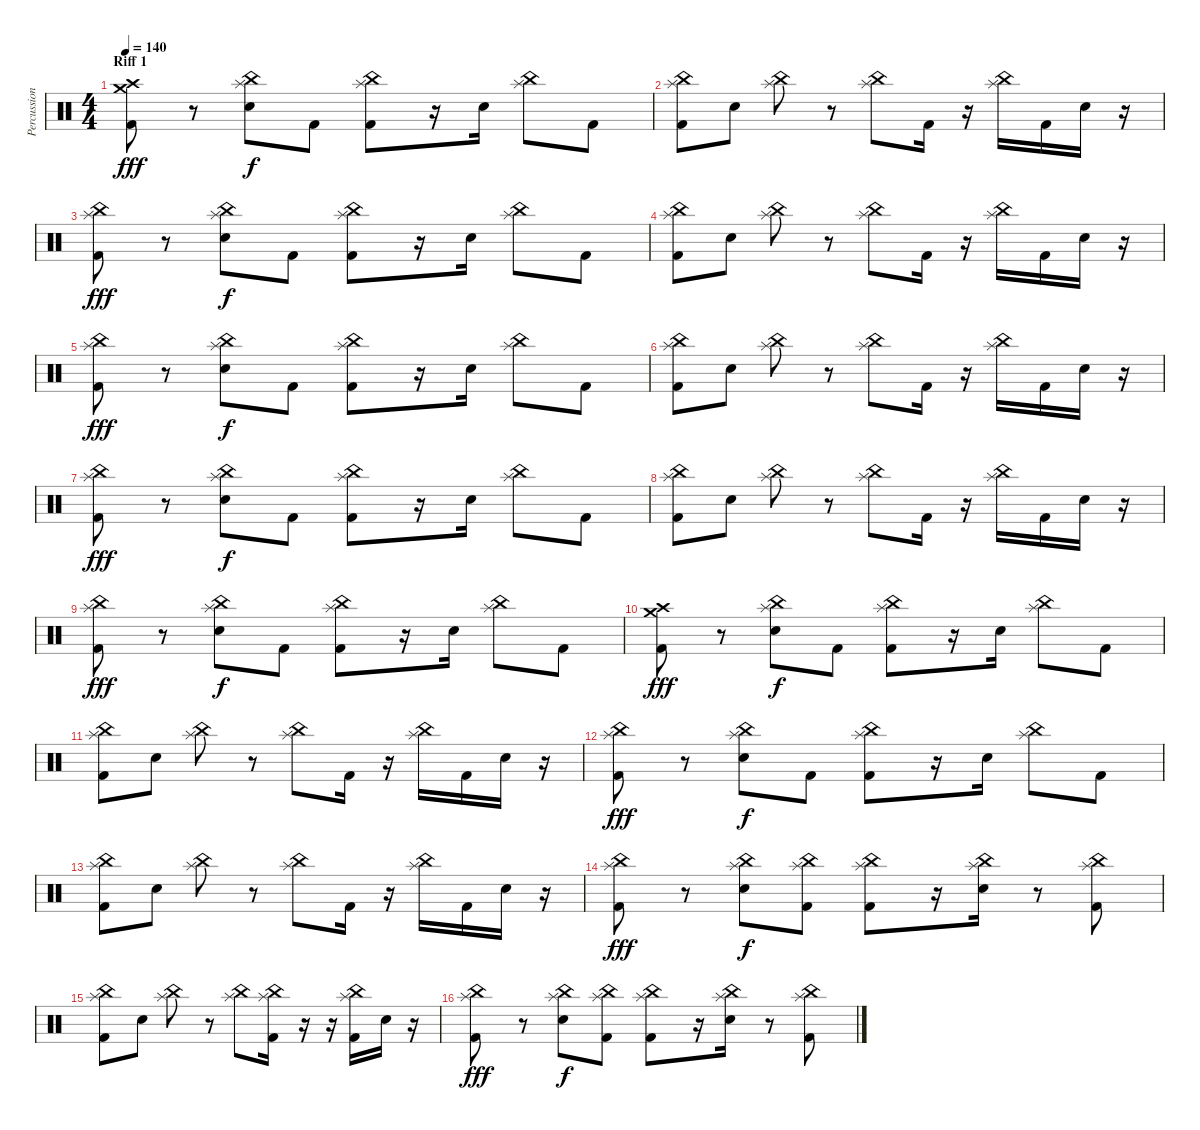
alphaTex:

\track ("Percussion" "Percussion") {instrument percussion}
\staff {score}
\articulation defaults
\ts (4 4)
\section ("" "Riff 1")
\tempo 140
\clef neutral
\ks c
("Crash medium (hit)" "Crash high (hit)" "Kick (hit) 2").8{dy fff} r.8 ("Splash (hit)" "China (hit)" "Electric Snare (hit)").8{dy f} "Kick (hit) 2".8 ("Splash (hit)" "China (hit)" "Kick (hit) 2").8 r.16 "Electric Snare (hit)".16 ("Splash (hit)" "China (hit)").8 "Kick (hit) 2".8 |
("Splash (hit)" "China (hit)" "Kick (hit) 2").8 "Electric Snare (hit)".8 ("Splash (hit)" "China (hit)").8 r.8 ("Splash (hit)" "China (hit)").8 "Kick (hit) 2".16 r.16 ("Splash (hit)" "China (hit)").16 "Kick (hit) 2".16 "Electric Snare (hit)".16 r.16 |
("Splash (hit)" "China (hit)" "Kick (hit) 2").8{dy fff} r.8 ("Splash (hit)" "China (hit)" "Electric Snare (hit)").8{dy f} "Kick (hit) 2".8 ("Splash (hit)" "China (hit)" "Kick (hit) 2").8 r.16 "Electric Snare (hit)".16 ("Splash (hit)" "China (hit)").8 "Kick (hit) 2".8 |
("Splash (hit)" "China (hit)" "Kick (hit) 2").8 "Electric Snare (hit)".8 ("Splash (hit)" "China (hit)").8 r.8 ("Splash (hit)" "China (hit)").8 "Kick (hit) 2".16 r.16 ("Splash (hit)" "China (hit)").16 "Kick (hit) 2".16 "Electric Snare (hit)".16 r.16 |
("Splash (hit)" "China (hit)" "Kick (hit) 2").8{dy fff} r.8 ("Splash (hit)" "China (hit)" "Electric Snare (hit)").8{dy f} "Kick (hit) 2".8 ("Splash (hit)" "China (hit)" "Kick (hit) 2").8 r.16 "Electric Snare (hit)".16 ("Splash (hit)" "China (hit)").8 "Kick (hit) 2".8 |
("Splash (hit)" "China (hit)" "Kick (hit) 2").8 "Electric Snare (hit)".8 ("Splash (hit)" "China (hit)").8 r.8 ("Splash (hit)" "China (hit)").8 "Kick (hit) 2".16 r.16 ("Splash (hit)" "China (hit)").16 "Kick (hit) 2".16 "Electric Snare (hit)".16 r.16 |
("Splash (hit)" "China (hit)" "Kick (hit) 2").8{dy fff} r.8 ("Splash (hit)" "China (hit)" "Electric Snare (hit)").8{dy f} "Kick (hit) 2".8 ("Splash (hit)" "China (hit)" "Kick (hit) 2").8 r.16 "Electric Snare (hit)".16 ("Splash (hit)" "China (hit)").8 "Kick (hit) 2".8 |
("Splash (hit)" "China (hit)" "Kick (hit) 2").8 "Electric Snare (hit)".8 ("Splash (hit)" "China (hit)").8 r.8 ("Splash (hit)" "China (hit)").8 "Kick (hit) 2".16 r.16 ("Splash (hit)" "China (hit)").16 "Kick (hit) 2".16 "Electric Snare (hit)".16 r.16 |
("Splash (hit)" "China (hit)" "Kick (hit) 2").8{dy fff} r.8 ("Splash (hit)" "China (hit)" "Electric Snare (hit)").8{dy f} "Kick (hit) 2".8 ("Splash (hit)" "China (hit)" "Kick (hit) 2").8 r.16 "Electric Snare (hit)".16 ("Splash (hit)" "China (hit)").8 "Kick (hit) 2".8 |
("Crash medium (hit)" "Crash high (hit)" "Kick (hit) 2").8{dy fff} r.8 ("Splash (hit)" "China (hit)" "Electric Snare (hit)").8{dy f} "Kick (hit) 2".8 ("Splash (hit)" "China (hit)" "Kick (hit) 2").8 r.16 "Electric Snare (hit)".16 ("Splash (hit)" "China (hit)").8 "Kick (hit) 2".8 |
("Splash (hit)" "China (hit)" "Kick (hit) 2").8 "Electric Snare (hit)".8 ("Splash (hit)" "China (hit)").8 r.8 ("Splash (hit)" "China (hit)").8 "Kick (hit) 2".16 r.16 ("Splash (hit)" "China (hit)").16 "Kick (hit) 2".16 "Electric Snare (hit)".16 r.16 |
("Splash (hit)" "China (hit)" "Kick (hit) 2").8{dy fff} r.8 ("Splash (hit)" "China (hit)" "Electric Snare (hit)").8{dy f} "Kick (hit) 2".8 ("Splash (hit)" "China (hit)" "Kick (hit) 2").8 r.16 "Electric Snare (hit)".16 ("Splash (hit)" "China (hit)").8 "Kick (hit) 2".8 |
("Splash (hit)" "China (hit)" "Kick (hit) 2").8 "Electric Snare (hit)".8 ("Splash (hit)" "China (hit)").8 r.8 ("Splash (hit)" "China (hit)").8 "Kick (hit) 2".16 r.16 ("Splash (hit)" "China (hit)").16 "Kick (hit) 2".16 "Electric Snare (hit)".16 r.16 |
("Splash (hit)" "China (hit)" "Kick (hit) 2").8{dy fff} r.8 ("Splash (hit)" "China (hit)" "Electric Snare (hit)").8{dy f} ("Splash (hit)" "China (hit)" "Kick (hit) 2").8 ("Splash (hit)" "China (hit)" "Kick (hit) 2").8 r.16 ("Splash (hit)" "China (hit)" "Electric Snare (hit)").16 r.8 ("Splash (hit)" "China (hit)" "Kick (hit) 2").8 |
("Splash (hit)" "China (hit)" "Kick (hit) 2").8 "Electric Snare (hit)".8 ("Splash (hit)" "China (hit)").8 r.8 ("Splash (hit)" "China (hit)").8 ("Splash (hit)" "China (hit)" "Kick (hit) 2").16 r.16 r.16 ("Splash (hit)" "China (hit)" "Kick (hit) 2").16 "Electric Snare (hit)".16 r.16 |
("Splash (hit)" "China (hit)" "Kick (hit) 2").8{dy fff} r.8 ("Splash (hit)" "China (hit)" "Electric Snare (hit)").8{dy f} ("Splash (hit)" "China (hit)" "Kick (hit) 2").8 ("Splash (hit)" "China (hit)" "Kick (hit) 2").8 r.16 ("Splash (hit)" "China (hit)" "Electric Snare (hit)").16 r.8 ("Splash (hit)" "China (hit)" "Kick (hit) 2").8
